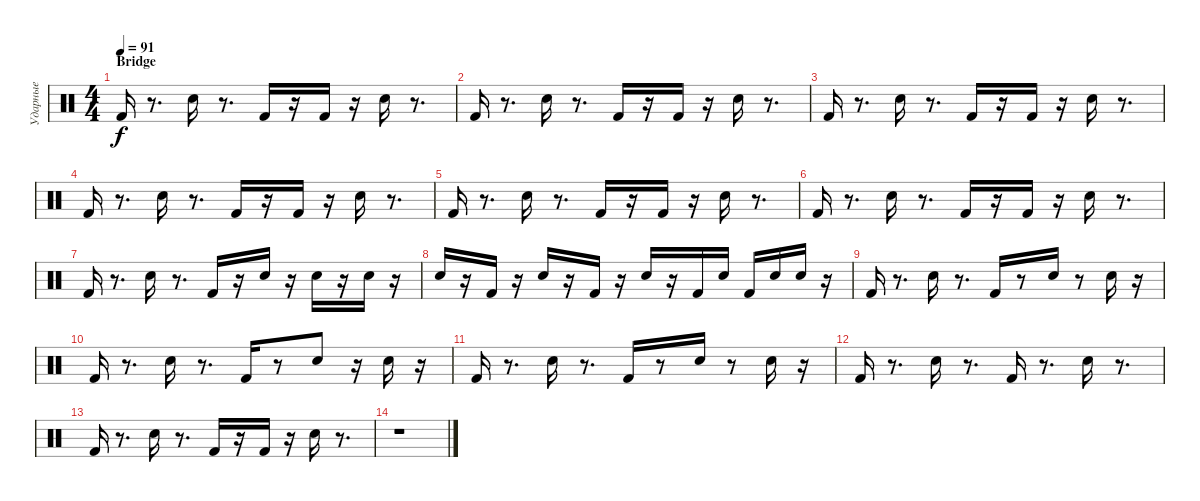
\track ("Ударные" "Ударные") {instrument percussion}
\staff {score}
\articulation defaults
\ts (4 4)
\section ("" "Bridge")
\tempo 91
\clef neutral
\ks c "Kick (hit) 2".16{dy f}
r.8{d} "Electric Snare (hit)".16 r.8{d} "Kick (hit) 2".16 r.16 "Kick (hit) 2".16 r.16 "Electric Snare (hit)".16 r.8{d} |
"Kick (hit) 2".16 r.8{d} "Electric Snare (hit)".16 r.8{d} "Kick (hit) 2".16 r.16 "Kick (hit) 2".16 r.16 "Electric Snare (hit)".16 r.8{d} |
"Kick (hit) 2".16 r.8{d} "Electric Snare (hit)".16 r.8{d} "Kick (hit) 2".16 r.16 "Kick (hit) 2".16 r.16 "Electric Snare (hit)".16 r.8{d} |
"Kick (hit) 2".16 r.8{d} "Electric Snare (hit)".16 r.8{d} "Kick (hit) 2".16 r.16 "Kick (hit) 2".16 r.16 "Electric Snare (hit)".16 r.8{d} |
"Kick (hit) 2".16 r.8{d} "Electric Snare (hit)".16 r.8{d} "Kick (hit) 2".16 r.16 "Kick (hit) 2".16 r.16 "Electric Snare (hit)".16 r.8{d} |
"Kick (hit) 2".16 r.8{d} "Electric Snare (hit)".16 r.8{d} "Kick (hit) 2".16 r.16 "Kick (hit) 2".16 r.16 "Electric Snare (hit)".16 r.8{d} |
"Kick (hit) 2".16 r.8{d} "Electric Snare (hit)".16 r.8{d} "Kick (hit) 2".16 r.16 "Electric Snare (hit)".16 r.16 "Electric Snare (hit)".16 r.16 "Electric Snare (hit)".16 r.16 |
"Electric Snare (hit)".16 r.16 "Kick (hit) 2".16 r.16 "Electric Snare (hit)".16 r.16 "Kick (hit) 2".16 r.16 "Electric Snare (hit)".16 r.16 "Kick (hit) 2".16 "Electric Snare (hit)".16 "Kick (hit) 2".16 "Electric Snare (hit)".16 "Electric Snare (hit)".16 r.16 |
"Kick (hit) 2".16 r.8{d} "Electric Snare (hit)".16 r.8{d} "Kick (hit) 2".16 r.8 "Electric Snare (hit)".16 r.8 "Electric Snare (hit)".16 r.16 |
"Kick (hit) 2".16 r.8{d} "Electric Snare (hit)".16 r.8{d} "Kick (hit) 2".16 r.8 "Electric Snare (hit)".8 r.16 "Electric Snare (hit)".16 r.16 |
"Kick (hit) 2".16 r.8{d} "Electric Snare (hit)".16 r.8{d} "Kick (hit) 2".16 r.8 "Electric Snare (hit)".16 r.8 "Electric Snare (hit)".16 r.16 |
"Kick (hit) 2".16 r.8{d} "Electric Snare (hit)".16 r.8{d} "Kick (hit) 2".16 r.8{d} "Electric Snare (hit)".16 r.8{d} |
"Kick (hit) 2".16 r.8{d} "Electric Snare (hit)".16 r.8{d} "Kick (hit) 2".16 r.16 "Kick (hit) 2".16 r.16 "Electric Snare (hit)".16 r.8{d} |
r.1
